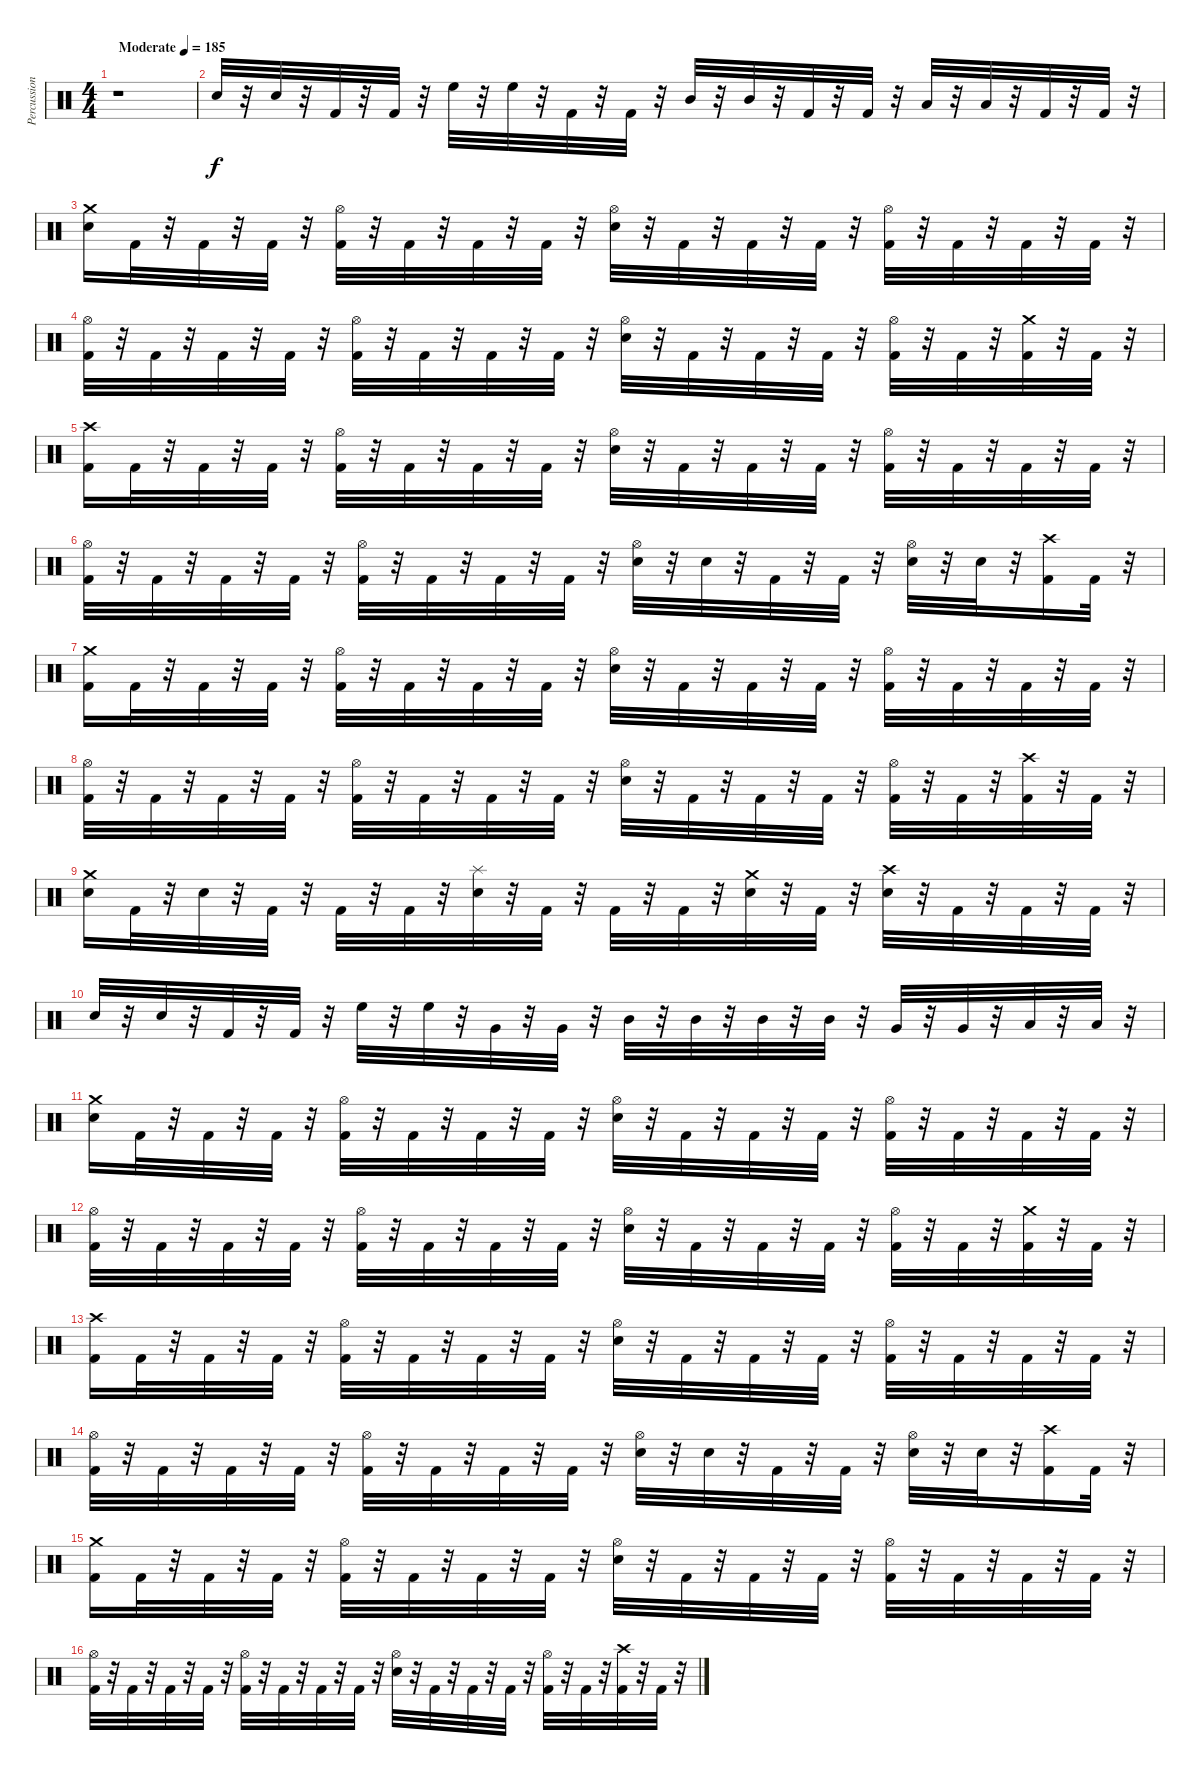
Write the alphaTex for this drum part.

\track ("Percussion" "Percussion") {instrument percussion}
\staff {score}
\articulation defaults
\ts (4 4)
\tempo (185 "Moderate")
\clef neutral
\ks c
r.1{dy f} |
"Snare (hit) 2".32 r.32 "Snare (hit) 2".32 r.32 "Kick (hit) 2".32 r.32 "Kick (hit) 2".32 r.32 "High Floor Tom (hit)".32 r.32 "High Floor Tom (hit)".32 r.32 "Kick (hit) 2".32 r.32 "Kick (hit) 2".32 r.32 "Mid Tom (hit)".32 r.32 "Mid Tom (hit)".32 r.32 "Kick (hit) 2".32 r.32 "Kick (hit) 2".32 r.32 "Low Floor Tom (hit)".32 r.32 "Low Floor Tom (hit)".32 r.32 "Kick (hit) 2".32 r.32 "Kick (hit) 2".32 r.32 |
("Snare (hit) 2" "Crash medium (hit)").16 "Kick (hit) 2".32 r.32 "Kick (hit) 2".32 r.32 "Kick (hit) 2".32 r.32 ("Kick (hit) 2" "Hi-Hat (open)").32 r.32 "Kick (hit) 2".32 r.32 "Kick (hit) 2".32 r.32 "Kick (hit) 2".32 r.32 ("Snare (hit) 2" "Hi-Hat (open)").32 r.32 "Kick (hit) 2".32 r.32 "Kick (hit) 2".32 r.32 "Kick (hit) 2".32 r.32 ("Kick (hit) 2" "Hi-Hat (open)").32 r.32 "Kick (hit) 2".32 r.32 "Kick (hit) 2".32 r.32 "Kick (hit) 2".32 r.32 |
("Kick (hit) 2" "Hi-Hat (open)").32 r.32 "Kick (hit) 2".32 r.32 "Kick (hit) 2".32 r.32 "Kick (hit) 2".32 r.32 ("Kick (hit) 2" "Hi-Hat (open)").32 r.32 "Kick (hit) 2".32 r.32 "Kick (hit) 2".32 r.32 "Kick (hit) 2".32 r.32 ("Snare (hit) 2" "Hi-Hat (open)").32 r.32 "Kick (hit) 2".32 r.32 "Kick (hit) 2".32 r.32 "Kick (hit) 2".32 r.32 ("Kick (hit) 2" "Hi-Hat (open)").32 r.32 "Kick (hit) 2".32 r.32 ("Kick (hit) 2" "Crash medium (hit)").32 r.32 "Kick (hit) 2".32 r.32 |
("Kick (hit) 2" "Crash high (hit)").16 "Kick (hit) 2".32 r.32 "Kick (hit) 2".32 r.32 "Kick (hit) 2".32 r.32 ("Kick (hit) 2" "Hi-Hat (open)").32 r.32 "Kick (hit) 2".32 r.32 "Kick (hit) 2".32 r.32 "Kick (hit) 2".32 r.32 ("Snare (hit) 2" "Hi-Hat (open)").32 r.32 "Kick (hit) 2".32 r.32 "Kick (hit) 2".32 r.32 "Kick (hit) 2".32 r.32 ("Kick (hit) 2" "Hi-Hat (open)").32 r.32 "Kick (hit) 2".32 r.32 "Kick (hit) 2".32 r.32 "Kick (hit) 2".32 r.32 |
("Kick (hit) 2" "Hi-Hat (open)").32 r.32 "Kick (hit) 2".32 r.32 "Kick (hit) 2".32 r.32 "Kick (hit) 2".32 r.32 ("Kick (hit) 2" "Hi-Hat (open)").32 r.32 "Kick (hit) 2".32 r.32 "Kick (hit) 2".32 r.32 "Kick (hit) 2".32 r.32 ("Snare (hit) 2" "Hi-Hat (open)").32 r.32 "Snare (hit) 2".32 r.32 "Kick (hit) 2".32 r.32 "Kick (hit) 2".32 r.32 ("Snare (hit) 2" "Hi-Hat (open)").32 r.32 "Snare (hit) 2".32 r.32 ("Kick (hit) 2" "Crash high (hit)").16 "Kick (hit) 2".32 r.32 |
("Kick (hit) 2" "Crash medium (hit)").16 "Kick (hit) 2".32 r.32 "Kick (hit) 2".32 r.32 "Kick (hit) 2".32 r.32 ("Kick (hit) 2" "Hi-Hat (open)").32 r.32 "Kick (hit) 2".32 r.32 "Kick (hit) 2".32 r.32 "Kick (hit) 2".32 r.32 ("Snare (hit) 2" "Hi-Hat (open)").32 r.32 "Kick (hit) 2".32 r.32 "Kick (hit) 2".32 r.32 "Kick (hit) 2".32 r.32 ("Kick (hit) 2" "Hi-Hat (open)").32 r.32 "Kick (hit) 2".32 r.32 "Kick (hit) 2".32 r.32 "Kick (hit) 2".32 r.32 |
("Kick (hit) 2" "Hi-Hat (open)").32 r.32 "Kick (hit) 2".32 r.32 "Kick (hit) 2".32 r.32 "Kick (hit) 2".32 r.32 ("Kick (hit) 2" "Hi-Hat (open)").32 r.32 "Kick (hit) 2".32 r.32 "Kick (hit) 2".32 r.32 "Kick (hit) 2".32 r.32 ("Snare (hit) 2" "Hi-Hat (open)").32 r.32 "Kick (hit) 2".32 r.32 "Kick (hit) 2".32 r.32 "Kick (hit) 2".32 r.32 ("Kick (hit) 2" "Hi-Hat (open)").32 r.32 "Kick (hit) 2".32 r.32 ("Kick (hit) 2" "Crash high (hit)").32 r.32 "Kick (hit) 2".32 r.32 |
("Snare (hit) 2" "Crash medium (hit)").16 "Kick (hit) 2".32 r.32 "Snare (hit) 2".32 r.32 "Kick (hit) 2".32 r.32 "Kick (hit) 2".32 r.32 "Kick (hit) 2".32 r.32 ("Snare (hit) 2" "Splash (hit)").32 r.32 "Kick (hit) 2".32 r.32 "Kick (hit) 2".32 r.32 "Kick (hit) 2".32 r.32 ("Snare (hit) 2" "Crash medium (hit)").32 r.32 "Kick (hit) 2".32 r.32 ("Snare (hit) 2" "Crash high (hit)").32 r.32 "Kick (hit) 2".32 r.32 "Kick (hit) 2".32 r.32 "Kick (hit) 2".32 r.32 |
"Snare (hit) 2".32 r.32 "Snare (hit) 2".32 r.32 "Kick (hit) 2".32 r.32 "Kick (hit) 2".32 r.32 "High Floor Tom (hit)".32 r.32 "High Floor Tom (hit)".32 r.32 "Very Low Tom (hit)".32 r.32 "Very Low Tom (hit)".32 r.32 "Mid Tom (hit)".32 r.32 "Mid Tom (hit)".32 r.32 "Mid Tom (hit)".32 r.32 "Mid Tom (hit)".32 r.32 "Very Low Tom (hit)".32 r.32 "Very Low Tom (hit)".32 r.32 "Low Floor Tom (hit)".32 r.32 "Low Floor Tom (hit)".32 r.32 |
("Snare (hit) 2" "Crash medium (hit)").16{volume 16} "Kick (hit) 2".32 r.32 "Kick (hit) 2".32 r.32 "Kick (hit) 2".32 r.32 ("Kick (hit) 2" "Hi-Hat (open)").32 r.32 "Kick (hit) 2".32 r.32 "Kick (hit) 2".32 r.32 "Kick (hit) 2".32 r.32 ("Snare (hit) 2" "Hi-Hat (open)").32 r.32 "Kick (hit) 2".32 r.32 "Kick (hit) 2".32 r.32 "Kick (hit) 2".32 r.32 ("Kick (hit) 2" "Hi-Hat (open)").32 r.32 "Kick (hit) 2".32 r.32 "Kick (hit) 2".32 r.32 "Kick (hit) 2".32 r.32 |
("Kick (hit) 2" "Hi-Hat (open)").32 r.32 "Kick (hit) 2".32 r.32 "Kick (hit) 2".32 r.32 "Kick (hit) 2".32 r.32 ("Kick (hit) 2" "Hi-Hat (open)").32 r.32 "Kick (hit) 2".32 r.32 "Kick (hit) 2".32 r.32 "Kick (hit) 2".32 r.32 ("Snare (hit) 2" "Hi-Hat (open)").32 r.32 "Kick (hit) 2".32 r.32 "Kick (hit) 2".32 r.32 "Kick (hit) 2".32 r.32 ("Kick (hit) 2" "Hi-Hat (open)").32 r.32 "Kick (hit) 2".32 r.32 ("Kick (hit) 2" "Crash medium (hit)").32 r.32 "Kick (hit) 2".32 r.32 |
("Kick (hit) 2" "Crash high (hit)").16 "Kick (hit) 2".32 r.32 "Kick (hit) 2".32 r.32 "Kick (hit) 2".32 r.32 ("Kick (hit) 2" "Hi-Hat (open)").32 r.32 "Kick (hit) 2".32 r.32 "Kick (hit) 2".32 r.32 "Kick (hit) 2".32 r.32 ("Snare (hit) 2" "Hi-Hat (open)").32 r.32 "Kick (hit) 2".32 r.32 "Kick (hit) 2".32 r.32 "Kick (hit) 2".32 r.32 ("Kick (hit) 2" "Hi-Hat (open)").32 r.32 "Kick (hit) 2".32 r.32 "Kick (hit) 2".32 r.32 "Kick (hit) 2".32 r.32 |
("Kick (hit) 2" "Hi-Hat (open)").32 r.32 "Kick (hit) 2".32 r.32 "Kick (hit) 2".32 r.32 "Kick (hit) 2".32 r.32 ("Kick (hit) 2" "Hi-Hat (open)").32 r.32 "Kick (hit) 2".32 r.32 "Kick (hit) 2".32 r.32 "Kick (hit) 2".32 r.32 ("Snare (hit) 2" "Hi-Hat (open)").32 r.32 "Snare (hit) 2".32 r.32 "Kick (hit) 2".32 r.32 "Kick (hit) 2".32 r.32 ("Snare (hit) 2" "Hi-Hat (open)").32 r.32 "Snare (hit) 2".32 r.32 ("Kick (hit) 2" "Crash high (hit)").16 "Kick (hit) 2".32 r.32 |
("Kick (hit) 2" "Crash medium (hit)").16 "Kick (hit) 2".32 r.32 "Kick (hit) 2".32 r.32 "Kick (hit) 2".32 r.32 ("Kick (hit) 2" "Hi-Hat (open)").32 r.32 "Kick (hit) 2".32 r.32 "Kick (hit) 2".32 r.32 "Kick (hit) 2".32 r.32 ("Snare (hit) 2" "Hi-Hat (open)").32 r.32 "Kick (hit) 2".32 r.32 "Kick (hit) 2".32 r.32 "Kick (hit) 2".32 r.32 ("Kick (hit) 2" "Hi-Hat (open)").32 r.32 "Kick (hit) 2".32 r.32 "Kick (hit) 2".32 r.32 "Kick (hit) 2".32 r.32 |
("Kick (hit) 2" "Hi-Hat (open)").32 r.32 "Kick (hit) 2".32 r.32 "Kick (hit) 2".32 r.32 "Kick (hit) 2".32 r.32 ("Kick (hit) 2" "Hi-Hat (open)").32 r.32 "Kick (hit) 2".32 r.32 "Kick (hit) 2".32 r.32 "Kick (hit) 2".32 r.32 ("Snare (hit) 2" "Hi-Hat (open)").32 r.32 "Kick (hit) 2".32 r.32 "Kick (hit) 2".32 r.32 "Kick (hit) 2".32 r.32 ("Kick (hit) 2" "Hi-Hat (open)").32 r.32 "Kick (hit) 2".32 r.32 ("Kick (hit) 2" "Crash high (hit)").32 r.32 "Kick (hit) 2".32 r.32
